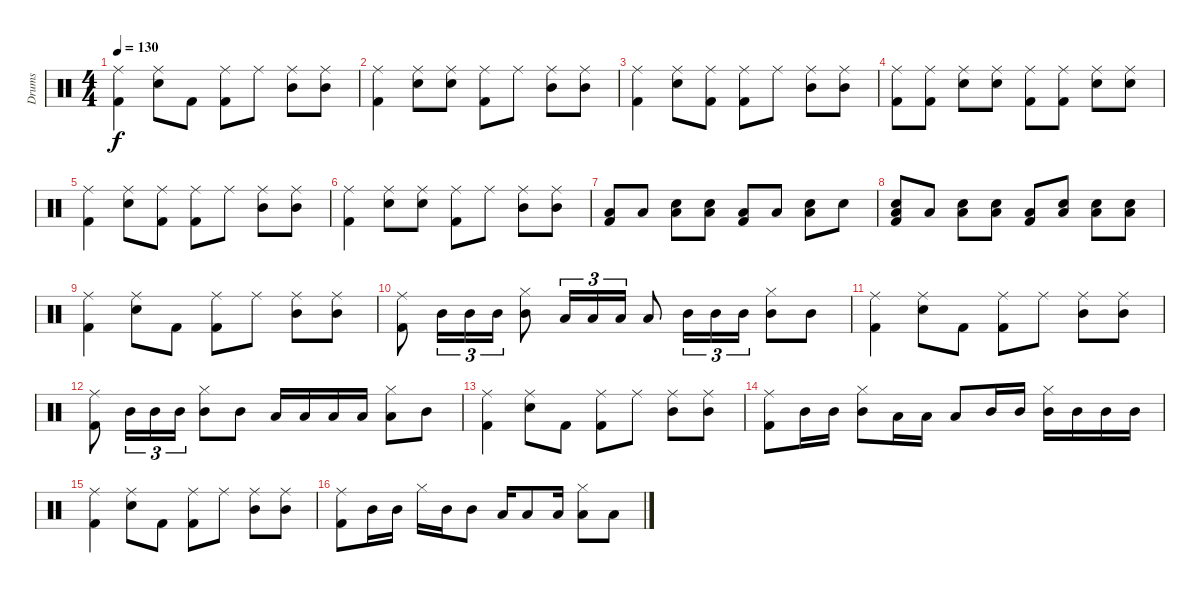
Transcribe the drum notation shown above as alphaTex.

\track ("Drums" "Drums") {instrument percussion}
\staff {score}
\articulation defaults
\ts (4 4)
\tempo 130
\clef neutral
\ks c
("Ride (middle)" "Kick (hit) 2").4{dy f} ("Ride (middle)" "Snare (hit) 2").8 "Kick (hit) 2".8 ("Ride (middle)" "Kick (hit) 2").8 "Ride (middle)".8 ("Ride (middle)" "Mid Tom (hit)").8 ("Ride (middle)" "Mid Tom (hit)").8 |
("Ride (middle)" "Kick (hit) 2").4 ("Ride (middle)" "Snare (hit) 2").8 ("Ride (middle)" "Snare (hit) 2").8 ("Ride (middle)" "Kick (hit) 2").8 "Ride (middle)".8 ("Ride (middle)" "Mid Tom (hit)").8 ("Ride (middle)" "Mid Tom (hit)").8 |
("Ride (middle)" "Kick (hit) 2").4 ("Ride (middle)" "Snare (hit) 2").8 ("Ride (middle)" "Kick (hit) 2").8 ("Ride (middle)" "Kick (hit) 2").8 "Ride (middle)".8 ("Ride (middle)" "Mid Tom (hit)").8 ("Ride (middle)" "Mid Tom (hit)").8 |
("Ride (middle)" "Kick (hit) 2").8 ("Ride (middle)" "Kick (hit) 2").8 ("Ride (middle)" "Snare (hit) 2").8 ("Ride (middle)" "Snare (hit) 2").8 ("Ride (middle)" "Kick (hit) 2").8 ("Ride (middle)" "Kick (hit) 2").8 ("Ride (middle)" "Snare (hit) 2").8 ("Ride (middle)" "Snare (hit) 2").8 |
("Ride (middle)" "Kick (hit) 2").4 ("Ride (middle)" "Snare (hit) 2").8 ("Ride (middle)" "Kick (hit) 2").8 ("Ride (middle)" "Kick (hit) 2").8 "Ride (middle)".8 ("Ride (middle)" "Mid Tom (hit)").8 ("Ride (middle)" "Mid Tom (hit)").8 |
("Ride (middle)" "Kick (hit) 2").4 ("Ride (middle)" "Snare (hit) 2").8 ("Ride (middle)" "Snare (hit) 2").8 ("Ride (middle)" "Kick (hit) 2").8 "Ride (middle)".8 ("Ride (middle)" "Mid Tom (hit)").8 ("Ride (middle)" "Mid Tom (hit)").8 |
("Low Tom (hit)" "Kick (hit) 2").8 "Low Tom (hit)".8 ("Low Tom (hit)" "Snare (hit) 2").8 ("Low Tom (hit)" "Snare (hit) 2").8 ("Low Tom (hit)" "Kick (hit) 2").8 "Low Tom (hit)".8 ("Low Tom (hit)" "Snare (hit) 2").8 "Snare (hit) 2".8 |
("Low Tom (hit)" "Snare (hit) 2" "Kick (hit) 2").8 "Low Tom (hit)".8 ("Low Tom (hit)" "Snare (hit) 2").8 ("Low Tom (hit)" "Snare (hit) 2").8 ("Low Tom (hit)" "Kick (hit) 2").8 ("Low Tom (hit)" "Snare (hit) 2").8 ("Low Tom (hit)" "Snare (hit) 2").8 ("Low Tom (hit)" "Snare (hit) 2").8 |
("Ride (middle)" "Kick (hit) 2").4 ("Ride (middle)" "Snare (hit) 2").8 "Kick (hit) 2".8 ("Ride (middle)" "Kick (hit) 2").8 "Ride (middle)".8 ("Ride (middle)" "Mid Tom (hit)").8 ("Ride (middle)" "Mid Tom (hit)").8 |
("Ride (middle)" "Kick (hit) 2").8 "Mid Tom (hit)".16{tu (3 2)} "Mid Tom (hit)".16{tu (3 2)} "Mid Tom (hit)".16{tu (3 2)} ("Hi-Hat (closed)" "Mid Tom (hit)").8 "Low Tom (hit)".16{tu (3 2)} "Low Tom (hit)".16{tu (3 2)} "Low Tom (hit)".16{tu (3 2)} "Low Tom (hit)".8 "Mid Tom (hit)".16{tu (3 2)} "Mid Tom (hit)".16{tu (3 2)} "Mid Tom (hit)".16{tu (3 2)} ("Hi-Hat (closed)" "Mid Tom (hit)").8 "Mid Tom (hit)".8 |
("Ride (middle)" "Kick (hit) 2").4 ("Ride (middle)" "Snare (hit) 2").8 "Kick (hit) 2".8 ("Ride (middle)" "Kick (hit) 2").8 "Ride (middle)".8 ("Ride (middle)" "Mid Tom (hit)").8 ("Ride (middle)" "Mid Tom (hit)").8 |
("Ride (middle)" "Kick (hit) 2").8 "Mid Tom (hit)".16{tu (3 2)} "Mid Tom (hit)".16{tu (3 2)} "Mid Tom (hit)".16{tu (3 2)} ("Hi-Hat (closed)" "Mid Tom (hit)").8 "Mid Tom (hit)".8 "Low Tom (hit)".16 "Low Tom (hit)".16 "Low Tom (hit)".16 "Low Tom (hit)".16 ("Hi-Hat (closed)" "Low Tom (hit)").8 "Mid Tom (hit)".8 |
("Ride (middle)" "Kick (hit) 2").4 ("Ride (middle)" "Snare (hit) 2").8 "Kick (hit) 2".8 ("Ride (middle)" "Kick (hit) 2").8 "Ride (middle)".8 ("Ride (middle)" "Mid Tom (hit)").8 ("Ride (middle)" "Mid Tom (hit)").8 |
("Ride (middle)" "Kick (hit) 2").8 "Mid Tom (hit)".16 "Mid Tom (hit)".16 ("Hi-Hat (closed)" "Mid Tom (hit)").8 "Low Tom (hit)".16 "Low Tom (hit)".16 "Low Tom (hit)".8 "Mid Tom (hit)".16 "Mid Tom (hit)".16 ("Hi-Hat (closed)" "Mid Tom (hit)").16 "Mid Tom (hit)".16 "Mid Tom (hit)".16 "Mid Tom (hit)".16 |
("Ride (middle)" "Kick (hit) 2").4 ("Ride (middle)" "Snare (hit) 2").8 "Kick (hit) 2".8 ("Ride (middle)" "Kick (hit) 2").8 "Ride (middle)".8 ("Ride (middle)" "Mid Tom (hit)").8 ("Ride (middle)" "Mid Tom (hit)").8 |
("Ride (middle)" "Kick (hit) 2").8 "Mid Tom (hit)".16 "Mid Tom (hit)".16 "Hi-Hat (closed)".16 "Mid Tom (hit)".16 "Mid Tom (hit)".8 "Low Tom (hit)".16 "Low Tom (hit)".8 "Low Tom (hit)".16 ("Hi-Hat (closed)" "Low Tom (hit)").8 "Low Tom (hit)".8
